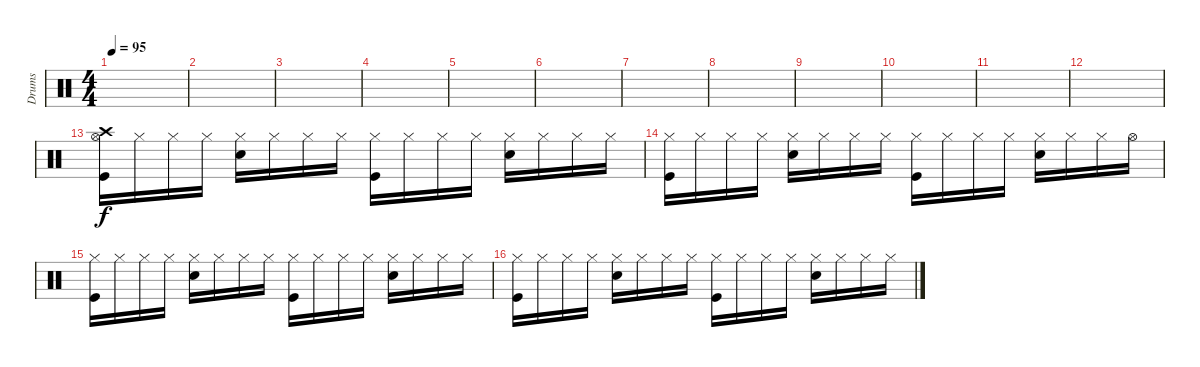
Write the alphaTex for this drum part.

\track ("Drums" "Drums") {instrument percussion}
\staff {score}
\articulation defaults
\ts (4 4)
\tempo 95
\clef neutral
\ks c
|
|
|
|
|
|
|
|
|
|
|
|
("Crash high (hit)" "Hi-Hat (open)" "Kick (hit)").16 "Hi-Hat (closed)".16 "Hi-Hat (closed)".16 "Hi-Hat (closed)".16 ("Hi-Hat (closed)" "Snare (hit) 2").16 "Hi-Hat (closed)".16 "Hi-Hat (closed)".16 "Hi-Hat (closed)".16 ("Hi-Hat (closed)" "Kick (hit)").16 "Hi-Hat (closed)".16 "Hi-Hat (closed)".16 "Hi-Hat (closed)".16 ("Hi-Hat (closed)" "Snare (hit) 2").16 "Hi-Hat (closed)".16 "Hi-Hat (closed)".16 "Hi-Hat (closed)".16 |
("Hi-Hat (closed)" "Kick (hit)").16 "Hi-Hat (closed)".16 "Hi-Hat (closed)".16 "Hi-Hat (closed)".16 ("Hi-Hat (closed)" "Snare (hit) 2").16 "Hi-Hat (closed)".16 "Hi-Hat (closed)".16 "Hi-Hat (closed)".16 ("Hi-Hat (closed)" "Kick (hit)").16 "Hi-Hat (closed)".16 "Hi-Hat (closed)".16 "Hi-Hat (closed)".16 ("Hi-Hat (closed)" "Snare (hit) 2").16 "Hi-Hat (closed)".16 "Hi-Hat (closed)".16 "Hi-Hat (open)".16 |
("Hi-Hat (closed)" "Kick (hit)").16 "Hi-Hat (closed)".16 "Hi-Hat (closed)".16 "Hi-Hat (closed)".16 ("Hi-Hat (closed)" "Snare (hit) 2").16 "Hi-Hat (closed)".16 "Hi-Hat (closed)".16 "Hi-Hat (closed)".16 ("Hi-Hat (closed)" "Kick (hit)").16 "Hi-Hat (closed)".16 "Hi-Hat (closed)".16 "Hi-Hat (closed)".16 ("Hi-Hat (closed)" "Snare (hit) 2").16 "Hi-Hat (closed)".16 "Hi-Hat (closed)".16 "Hi-Hat (closed)".16 |
("Hi-Hat (closed)" "Kick (hit)").16 "Hi-Hat (closed)".16 "Hi-Hat (closed)".16 "Hi-Hat (closed)".16 ("Hi-Hat (closed)" "Snare (hit) 2").16 "Hi-Hat (closed)".16 "Hi-Hat (closed)".16 "Hi-Hat (closed)".16 ("Hi-Hat (closed)" "Kick (hit)").16 "Hi-Hat (closed)".16 "Hi-Hat (closed)".16 "Hi-Hat (closed)".16 ("Hi-Hat (closed)" "Snare (hit) 2").16 "Hi-Hat (closed)".16 "Hi-Hat (closed)".16 "Hi-Hat (closed)".16
